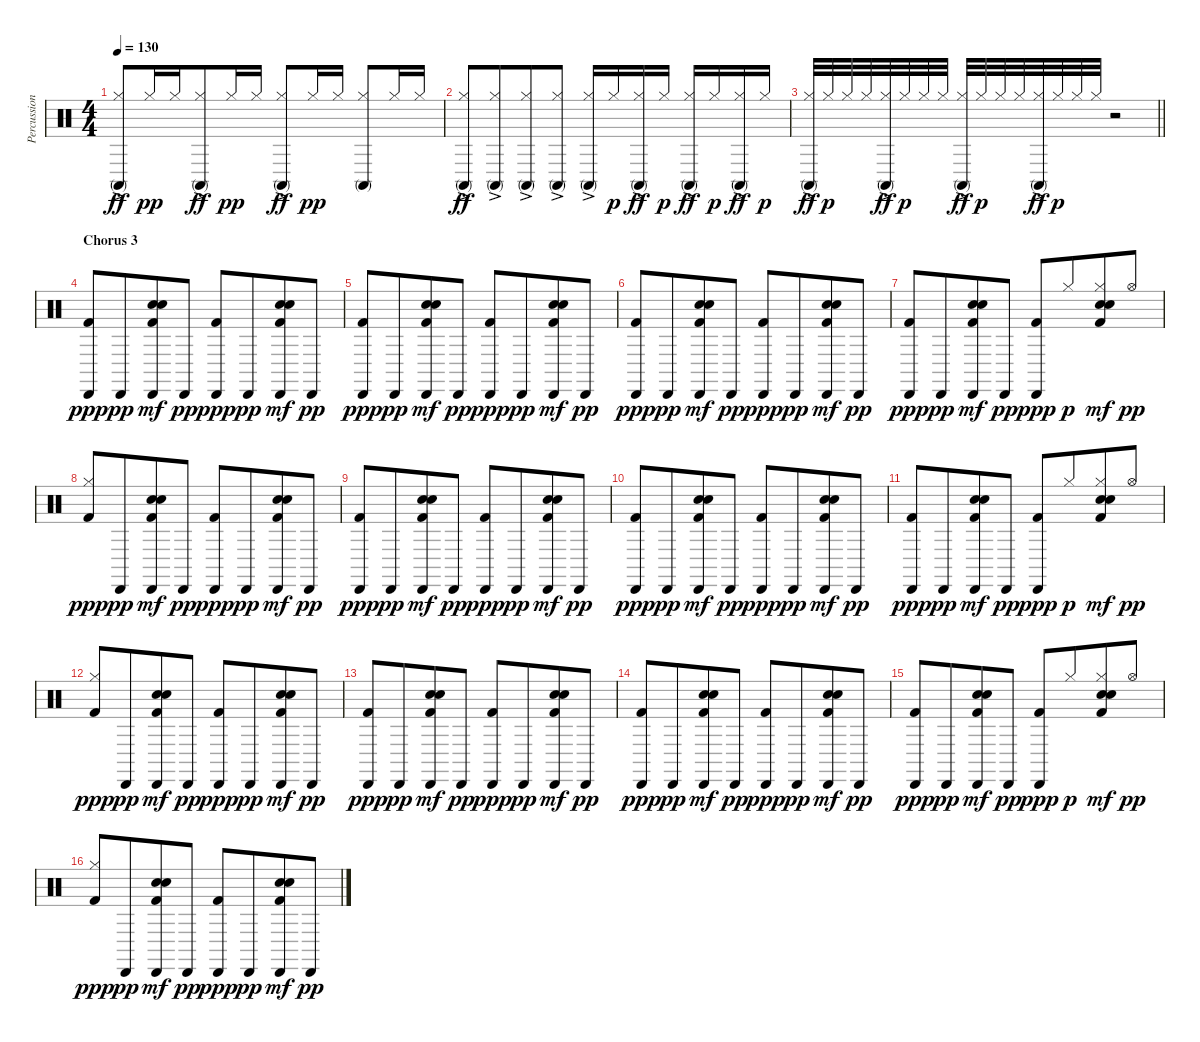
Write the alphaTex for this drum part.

\track ("Percussion" "Percussion") {instrument percussion}
\staff {score}
\articulation defaults
\ts (4 4)
\tempo 130
\clef neutral
\ks aminor
("Hi-Hat (closed)" "Conga high (mute)"{ac}).8{dy ff} "Hi-Hat (closed)".16{dy pp} "Hi-Hat (closed)".16{beam merge} ("Hi-Hat (closed)" "Conga high (mute)"{ac}).8{dy ff} "Hi-Hat (closed)".16{dy pp} "Hi-Hat (closed)".16 ("Hi-Hat (closed)" "Conga high (mute)"{ac}).8{dy ff beam merge} "Hi-Hat (closed)".16{dy pp} "Hi-Hat (closed)".16 ("Hi-Hat (closed)" "Conga high (mute)").8 "Hi-Hat (closed)".16 "Hi-Hat (closed)".16 |
("Hi-Hat (closed)" "Conga high (mute)"{ac}).8{dy ff} ("Hi-Hat (closed)" "Conga high (mute)"{ac}).8{beam merge} ("Hi-Hat (closed)" "Conga high (mute)"{ac}).8 ("Hi-Hat (closed)" "Conga high (mute)"{ac}).8 ("Hi-Hat (closed)" "Conga high (mute)"{ac}).16 "Hi-Hat (closed)".16{dy p} ("Hi-Hat (closed)" "Conga high (mute)"{ac}).16{dy ff} "Hi-Hat (closed)".16{dy p} ("Hi-Hat (closed)" "Conga high (mute)"{ac}).16{dy ff} "Hi-Hat (closed)".16{dy p} ("Hi-Hat (closed)" "Conga high (mute)"{ac}).16{dy ff} "Hi-Hat (closed)".16{dy p} |
\barLineRight lightlight
("Hi-Hat (closed)" "Conga high (mute)"{ac}).32{dy ff} "Hi-Hat (closed)".32{dy p} "Hi-Hat (closed)".32 "Hi-Hat (closed)".32 ("Hi-Hat (closed)" "Conga high (mute)"{ac}).32{dy ff} "Hi-Hat (closed)".32{dy p} "Hi-Hat (closed)".32 "Hi-Hat (closed)".32 ("Hi-Hat (closed)" "Conga high (mute)"{ac}).32{dy ff} "Hi-Hat (closed)".32{dy p} "Hi-Hat (closed)".32 "Hi-Hat (closed)".32 ("Hi-Hat (closed)" "Conga high (mute)"{ac}).32{dy ff} "Hi-Hat (closed)".32{dy p} "Hi-Hat (closed)".32 "Hi-Hat (closed)".32 r.2 |
\section ("" "Chorus 3")
("Cabasa (hit)" "Kick (hit) 2").8{dy ppp} "Cabasa (hit)".8{dy pp beam merge} ("Cabasa (hit)" "Hand Clap (hit)" "Snare (hit) 2" "Kick (hit) 2").8{dy mf} "Cabasa (hit)".8{dy pp} ("Cabasa (hit)" "Kick (hit) 2").8{dy ppp} "Cabasa (hit)".8{dy pp beam merge} ("Cabasa (hit)" "Hand Clap (hit)" "Snare (hit) 2" "Kick (hit) 2").8{dy mf} "Cabasa (hit)".8{dy pp} |
("Cabasa (hit)" "Kick (hit) 2").8{dy ppp} "Cabasa (hit)".8{dy pp beam merge} ("Cabasa (hit)" "Hand Clap (hit)" "Snare (hit) 2" "Kick (hit) 2").8{dy mf} "Cabasa (hit)".8{dy pp} ("Cabasa (hit)" "Kick (hit) 2").8{dy ppp} "Cabasa (hit)".8{dy pp beam merge} ("Cabasa (hit)" "Hand Clap (hit)" "Snare (hit) 2" "Kick (hit) 2").8{dy mf} "Cabasa (hit)".8{dy pp} |
("Cabasa (hit)" "Kick (hit) 2").8{dy ppp} "Cabasa (hit)".8{dy pp beam merge} ("Cabasa (hit)" "Hand Clap (hit)" "Snare (hit) 2" "Kick (hit) 2").8{dy mf} "Cabasa (hit)".8{dy pp} ("Cabasa (hit)" "Kick (hit) 2").8{dy ppp} "Cabasa (hit)".8{dy pp beam merge} ("Cabasa (hit)" "Hand Clap (hit)" "Snare (hit) 2" "Kick (hit) 2").8{dy mf} "Cabasa (hit)".8{dy pp} |
("Cabasa (hit)" "Kick (hit) 2").8{dy ppp} "Cabasa (hit)".8{dy pp beam merge} ("Cabasa (hit)" "Hand Clap (hit)" "Snare (hit) 2" "Kick (hit) 2").8{dy mf} "Cabasa (hit)".8{dy pp} ("Cabasa (hit)" "Kick (hit) 2").8{dy ppp} "Hi-Hat (closed)".8{dy p beam merge} ("Hi-Hat (closed)" "Hand Clap (hit)" "Snare (hit) 2" "Kick (hit) 2").8{dy mf} "Hi-Hat (open)".8{dy pp} |
("Hi-Hat (closed)" "Kick (hit) 2").8{dy ppp} "Cabasa (hit)".8{dy pp beam merge} ("Cabasa (hit)" "Hand Clap (hit)" "Snare (hit) 2" "Kick (hit) 2").8{dy mf} "Cabasa (hit)".8{dy pp} ("Cabasa (hit)" "Kick (hit) 2").8{dy ppp} "Cabasa (hit)".8{dy pp beam merge} ("Cabasa (hit)" "Hand Clap (hit)" "Snare (hit) 2" "Kick (hit) 2").8{dy mf} "Cabasa (hit)".8{dy pp} |
("Cabasa (hit)" "Kick (hit) 2").8{dy ppp} "Cabasa (hit)".8{dy pp beam merge} ("Cabasa (hit)" "Hand Clap (hit)" "Snare (hit) 2" "Kick (hit) 2").8{dy mf} "Cabasa (hit)".8{dy pp} ("Cabasa (hit)" "Kick (hit) 2").8{dy ppp} "Cabasa (hit)".8{dy pp beam merge} ("Cabasa (hit)" "Hand Clap (hit)" "Snare (hit) 2" "Kick (hit) 2").8{dy mf} "Cabasa (hit)".8{dy pp} |
("Cabasa (hit)" "Kick (hit) 2").8{dy ppp} "Cabasa (hit)".8{dy pp beam merge} ("Cabasa (hit)" "Hand Clap (hit)" "Snare (hit) 2" "Kick (hit) 2").8{dy mf} "Cabasa (hit)".8{dy pp} ("Cabasa (hit)" "Kick (hit) 2").8{dy ppp} "Cabasa (hit)".8{dy pp beam merge} ("Cabasa (hit)" "Hand Clap (hit)" "Snare (hit) 2" "Kick (hit) 2").8{dy mf} "Cabasa (hit)".8{dy pp} |
("Cabasa (hit)" "Kick (hit) 2").8{dy ppp} "Cabasa (hit)".8{dy pp beam merge} ("Cabasa (hit)" "Hand Clap (hit)" "Snare (hit) 2" "Kick (hit) 2").8{dy mf} "Cabasa (hit)".8{dy pp} ("Cabasa (hit)" "Kick (hit) 2").8{dy ppp} "Hi-Hat (closed)".8{dy p beam merge} ("Hi-Hat (closed)" "Hand Clap (hit)" "Snare (hit) 2" "Kick (hit) 2").8{dy mf} "Hi-Hat (open)".8{dy pp} |
("Hi-Hat (closed)" "Kick (hit) 2").8{dy ppp} "Cabasa (hit)".8{dy pp beam merge} ("Cabasa (hit)" "Hand Clap (hit)" "Snare (hit) 2" "Kick (hit) 2").8{dy mf} "Cabasa (hit)".8{dy pp} ("Cabasa (hit)" "Kick (hit) 2").8{dy ppp} "Cabasa (hit)".8{dy pp beam merge} ("Cabasa (hit)" "Hand Clap (hit)" "Snare (hit) 2" "Kick (hit) 2").8{dy mf} "Cabasa (hit)".8{dy pp} |
("Cabasa (hit)" "Kick (hit) 2").8{dy ppp} "Cabasa (hit)".8{dy pp beam merge} ("Cabasa (hit)" "Hand Clap (hit)" "Snare (hit) 2" "Kick (hit) 2").8{dy mf} "Cabasa (hit)".8{dy pp} ("Cabasa (hit)" "Kick (hit) 2").8{dy ppp} "Cabasa (hit)".8{dy pp beam merge} ("Cabasa (hit)" "Hand Clap (hit)" "Snare (hit) 2" "Kick (hit) 2").8{dy mf} "Cabasa (hit)".8{dy pp} |
("Cabasa (hit)" "Kick (hit) 2").8{dy ppp} "Cabasa (hit)".8{dy pp beam merge} ("Cabasa (hit)" "Hand Clap (hit)" "Snare (hit) 2" "Kick (hit) 2").8{dy mf} "Cabasa (hit)".8{dy pp} ("Cabasa (hit)" "Kick (hit) 2").8{dy ppp} "Cabasa (hit)".8{dy pp beam merge} ("Cabasa (hit)" "Hand Clap (hit)" "Snare (hit) 2" "Kick (hit) 2").8{dy mf} "Cabasa (hit)".8{dy pp} |
("Cabasa (hit)" "Kick (hit) 2").8{dy ppp} "Cabasa (hit)".8{dy pp beam merge} ("Cabasa (hit)" "Hand Clap (hit)" "Snare (hit) 2" "Kick (hit) 2").8{dy mf} "Cabasa (hit)".8{dy pp} ("Cabasa (hit)" "Kick (hit) 2").8{dy ppp} "Hi-Hat (closed)".8{dy p beam merge} ("Hi-Hat (closed)" "Hand Clap (hit)" "Snare (hit) 2" "Kick (hit) 2").8{dy mf} "Hi-Hat (open)".8{dy pp} |
("Hi-Hat (closed)" "Kick (hit) 2").8{dy ppp} "Cabasa (hit)".8{dy pp beam merge} ("Cabasa (hit)" "Hand Clap (hit)" "Snare (hit) 2" "Kick (hit) 2").8{dy mf} "Cabasa (hit)".8{dy pp} ("Cabasa (hit)" "Kick (hit) 2").8{dy ppp} "Cabasa (hit)".8{dy pp beam merge} ("Cabasa (hit)" "Hand Clap (hit)" "Snare (hit) 2" "Kick (hit) 2").8{dy mf} "Cabasa (hit)".8{dy pp}
